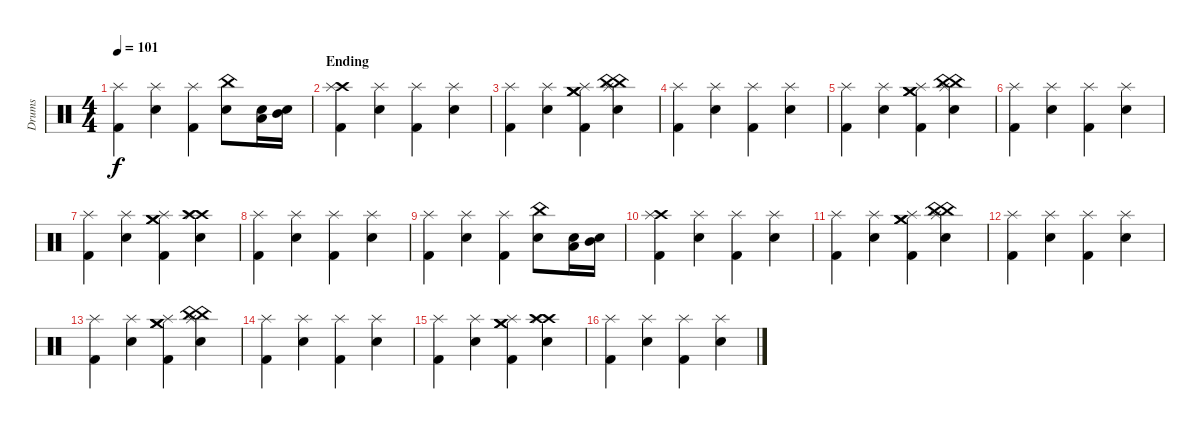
\track ("Drums" "Drums") {instrument percussion}
\staff {score}
\articulation defaults
\ts (4 4)
\tempo 101
\clef neutral
\ks c
("Splash (hit)" "Kick (hit) 2").4{dy f} ("Splash (hit)" "Snare (hit) 2").4 ("Splash (hit)" "Kick (hit) 2").4 ("China (hit)" "Electric Snare (hit)").8 ("Low Tom (hit)" "Electric Snare (hit)").16 ("Mid Tom (hit)" "Electric Snare (hit)").16 |
\section ("" "Ending")
("Crash high (hit)" "Splash (hit)" "Kick (hit) 2").4 ("Splash (hit)" "Snare (hit) 2").4 ("Splash (hit)" "Kick (hit) 2").4 ("Splash (hit)" "Snare (hit) 2").4 |
("Splash (hit)" "Kick (hit) 2").4 ("Splash (hit)" "Snare (hit) 2").4 ("Crash medium (hit)" "Crash medium (hit)" "Splash (hit)" "Kick (hit) 2").4 ("China (hit)" "China (hit)" "Splash (hit)" "Snare (hit) 2").4 |
("Splash (hit)" "Kick (hit) 2").4 ("Splash (hit)" "Snare (hit) 2").4 ("Splash (hit)" "Kick (hit) 2").4 ("Splash (hit)" "Snare (hit) 2").4 |
("Splash (hit)" "Kick (hit) 2").4 ("Splash (hit)" "Snare (hit) 2").4 ("Crash medium (hit)" "Crash medium (hit)" "Splash (hit)" "Kick (hit) 2").4 ("China (hit)" "China (hit)" "Splash (hit)" "Snare (hit) 2").4 |
("Splash (hit)" "Kick (hit) 2").4 ("Splash (hit)" "Snare (hit) 2").4 ("Splash (hit)" "Kick (hit) 2").4 ("Splash (hit)" "Snare (hit) 2").4 |
("Splash (hit)" "Kick (hit) 2").4 ("Splash (hit)" "Snare (hit) 2").4 ("Crash medium (hit)" "Crash medium (hit)" "Splash (hit)" "Kick (hit) 2").4 ("Crash high (hit)" "Crash high (hit)" "Splash (hit)" "Snare (hit) 2").4 |
("Splash (hit)" "Kick (hit) 2").4 ("Splash (hit)" "Snare (hit) 2").4 ("Splash (hit)" "Kick (hit) 2").4 ("Splash (hit)" "Snare (hit) 2").4 |
("Splash (hit)" "Kick (hit) 2").4 ("Splash (hit)" "Snare (hit) 2").4 ("Splash (hit)" "Kick (hit) 2").4 ("China (hit)" "Electric Snare (hit)").8 ("Low Tom (hit)" "Electric Snare (hit)").16 ("Mid Tom (hit)" "Electric Snare (hit)").16 |
("Crash high (hit)" "Splash (hit)" "Kick (hit) 2").4 ("Splash (hit)" "Snare (hit) 2").4 ("Splash (hit)" "Kick (hit) 2").4 ("Splash (hit)" "Snare (hit) 2").4 |
("Splash (hit)" "Kick (hit) 2").4 ("Splash (hit)" "Snare (hit) 2").4 ("Crash medium (hit)" "Crash medium (hit)" "Splash (hit)" "Kick (hit) 2").4 ("China (hit)" "China (hit)" "Splash (hit)" "Snare (hit) 2").4 |
("Splash (hit)" "Kick (hit) 2").4 ("Splash (hit)" "Snare (hit) 2").4 ("Splash (hit)" "Kick (hit) 2").4 ("Splash (hit)" "Snare (hit) 2").4 |
("Splash (hit)" "Kick (hit) 2").4 ("Splash (hit)" "Snare (hit) 2").4 ("Crash medium (hit)" "Crash medium (hit)" "Splash (hit)" "Kick (hit) 2").4 ("China (hit)" "China (hit)" "Splash (hit)" "Snare (hit) 2").4 |
("Splash (hit)" "Kick (hit) 2").4 ("Splash (hit)" "Snare (hit) 2").4 ("Splash (hit)" "Kick (hit) 2").4 ("Splash (hit)" "Snare (hit) 2").4 |
("Splash (hit)" "Kick (hit) 2").4 ("Splash (hit)" "Snare (hit) 2").4 ("Crash medium (hit)" "Crash medium (hit)" "Splash (hit)" "Kick (hit) 2").4 ("Crash high (hit)" "Crash high (hit)" "Splash (hit)" "Snare (hit) 2").4 |
("Splash (hit)" "Kick (hit) 2").4 ("Splash (hit)" "Snare (hit) 2").4 ("Splash (hit)" "Kick (hit) 2").4 ("Splash (hit)" "Snare (hit) 2").4
